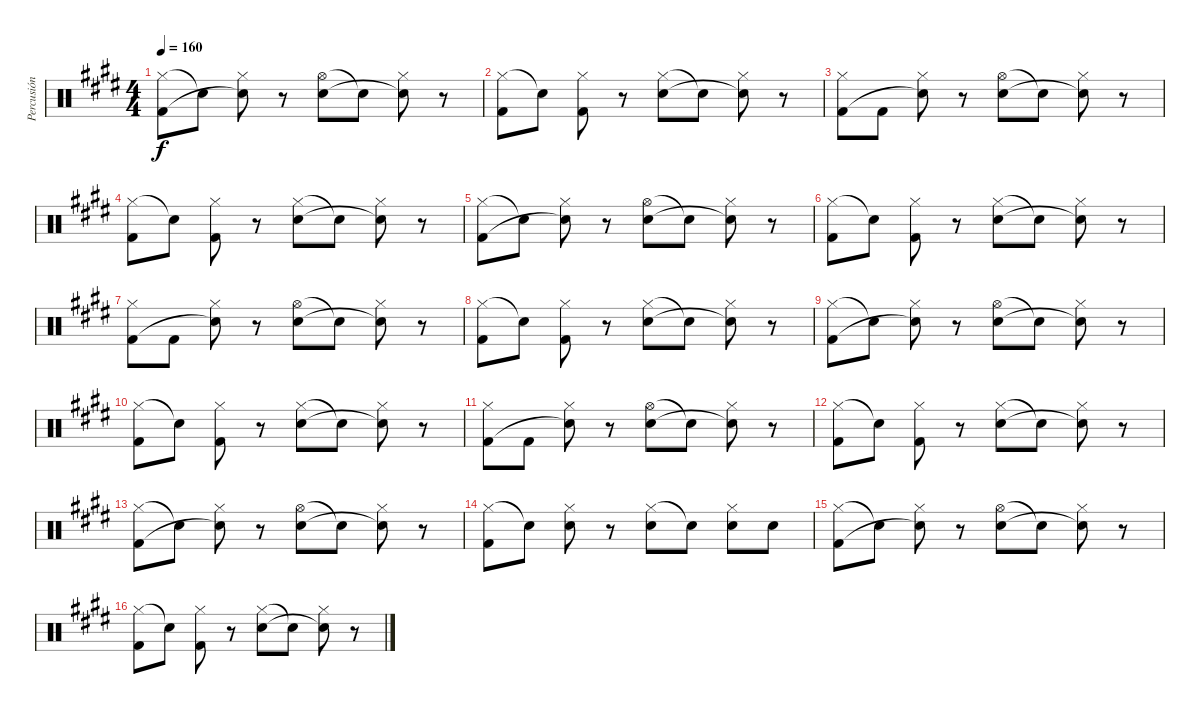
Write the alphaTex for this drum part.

\track ("Percusión" "Percusión") {instrument percussion}
\staff {score}
\articulation defaults
\ts (4 4)
\tempo 160
\clef neutral
\ks e
("Hi-Hat (closed)" "Kick (hit) 2").8{dy f} "Snare (hit) 2"{t}.8 ("Hi-Hat (closed)" "Snare (hit) 2"{t}).8 r.8 ("Hi-Hat (open)" "Electric Snare (hit)").8 "Snare (hit) 2"{t}.8 ("Hi-Hat (closed)" "Snare (hit) 2"{t}).8 r.8 |
("Hi-Hat (closed)" "Kick (hit) 2").8 "Snare (hit) 2"{t}.8 ("Hi-Hat (closed)" "Kick (hit) 2").8 r.8 ("Hi-Hat (closed)" "Electric Snare (hit)").8 "Snare (hit) 2"{t}.8 ("Hi-Hat (closed)" "Snare (hit) 2"{t}).8 r.8 |
("Hi-Hat (closed)" "Kick (hit) 2").8 "Kick (hit) 2".8 ("Hi-Hat (closed)" "Snare (hit) 2"{t}).8 r.8 ("Hi-Hat (open)" "Electric Snare (hit)").8 "Snare (hit) 2"{t}.8 ("Hi-Hat (closed)" "Snare (hit) 2"{t}).8 r.8 |
("Hi-Hat (closed)" "Kick (hit) 2").8 "Snare (hit) 2"{t}.8 ("Hi-Hat (closed)" "Kick (hit) 2").8 r.8 ("Hi-Hat (closed)" "Electric Snare (hit)").8 "Snare (hit) 2"{t}.8 ("Hi-Hat (closed)" "Snare (hit) 2"{t}).8 r.8 |
("Hi-Hat (closed)" "Kick (hit) 2").8 "Snare (hit) 2"{t}.8 ("Hi-Hat (closed)" "Snare (hit) 2"{t}).8 r.8 ("Hi-Hat (open)" "Electric Snare (hit)").8 "Snare (hit) 2"{t}.8 ("Hi-Hat (closed)" "Snare (hit) 2"{t}).8 r.8 |
("Hi-Hat (closed)" "Kick (hit) 2").8 "Snare (hit) 2"{t}.8 ("Hi-Hat (closed)" "Kick (hit) 2").8 r.8 ("Hi-Hat (closed)" "Electric Snare (hit)").8 "Snare (hit) 2"{t}.8 ("Hi-Hat (closed)" "Snare (hit) 2"{t}).8 r.8 |
("Hi-Hat (closed)" "Kick (hit) 2").8 "Kick (hit) 2".8 ("Hi-Hat (closed)" "Snare (hit) 2"{t}).8 r.8 ("Hi-Hat (open)" "Electric Snare (hit)").8 "Snare (hit) 2"{t}.8 ("Hi-Hat (closed)" "Snare (hit) 2"{t}).8 r.8 |
("Hi-Hat (closed)" "Kick (hit) 2").8 "Snare (hit) 2"{t}.8 ("Hi-Hat (closed)" "Kick (hit) 2").8 r.8 ("Hi-Hat (closed)" "Electric Snare (hit)").8 "Snare (hit) 2"{t}.8 ("Hi-Hat (closed)" "Snare (hit) 2"{t}).8 r.8 |
("Hi-Hat (closed)" "Kick (hit) 2").8 "Snare (hit) 2"{t}.8 ("Hi-Hat (closed)" "Snare (hit) 2"{t}).8 r.8 ("Hi-Hat (open)" "Electric Snare (hit)").8 "Snare (hit) 2"{t}.8 ("Hi-Hat (closed)" "Snare (hit) 2"{t}).8 r.8 |
("Hi-Hat (closed)" "Kick (hit) 2").8 "Snare (hit) 2"{t}.8 ("Hi-Hat (closed)" "Kick (hit) 2").8 r.8 ("Hi-Hat (closed)" "Electric Snare (hit)").8 "Snare (hit) 2"{t}.8 ("Hi-Hat (closed)" "Snare (hit) 2"{t}).8 r.8 |
("Hi-Hat (closed)" "Kick (hit) 2").8 "Kick (hit) 2".8 ("Hi-Hat (closed)" "Snare (hit) 2"{t}).8 r.8 ("Hi-Hat (open)" "Electric Snare (hit)").8 "Snare (hit) 2"{t}.8 ("Hi-Hat (closed)" "Snare (hit) 2"{t}).8 r.8 |
("Hi-Hat (closed)" "Kick (hit) 2").8 "Snare (hit) 2"{t}.8 ("Hi-Hat (closed)" "Kick (hit) 2").8 r.8 ("Hi-Hat (closed)" "Electric Snare (hit)").8 "Snare (hit) 2"{t}.8 ("Hi-Hat (closed)" "Snare (hit) 2"{t}).8 r.8 |
("Hi-Hat (closed)" "Kick (hit) 2").8 "Snare (hit) 2"{t}.8 ("Hi-Hat (closed)" "Snare (hit) 2"{t}).8 r.8 ("Hi-Hat (open)" "Electric Snare (hit)").8 "Snare (hit) 2"{t}.8 ("Hi-Hat (closed)" "Snare (hit) 2"{t}).8 r.8 |
("Hi-Hat (closed)" "Kick (hit) 2").8 "Snare (hit) 2"{t}.8 ("Hi-Hat (closed)" "Electric Snare (hit)").8 r.8 ("Hi-Hat (closed)" "Electric Snare (hit)").8 "Snare (hit) 2"{t}.8 ("Hi-Hat (closed)" "Electric Snare (hit)").8 "Electric Snare (hit)".8 |
("Hi-Hat (closed)" "Kick (hit) 2").8 "Snare (hit) 2"{t}.8 ("Hi-Hat (closed)" "Snare (hit) 2"{t}).8 r.8 ("Hi-Hat (open)" "Electric Snare (hit)").8 "Snare (hit) 2"{t}.8 ("Hi-Hat (closed)" "Snare (hit) 2"{t}).8 r.8 |
("Hi-Hat (closed)" "Kick (hit) 2").8 "Snare (hit) 2"{t}.8 ("Hi-Hat (closed)" "Kick (hit) 2").8 r.8 ("Hi-Hat (closed)" "Electric Snare (hit)").8 "Snare (hit) 2"{t}.8 ("Hi-Hat (closed)" "Snare (hit) 2"{t}).8 r.8
